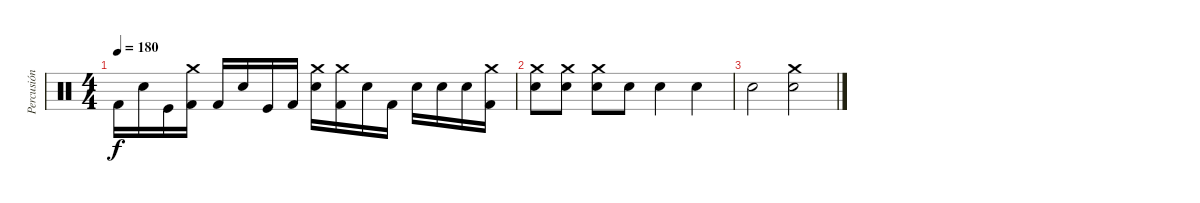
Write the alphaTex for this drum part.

\track ("Percusión" "Percusión") {instrument percussion}
\staff {score}
\articulation defaults
\ts (4 4)
\tempo 180
\clef neutral
\ks c "Kick (hit) 2".16{dy f} "Snare (hit) 2".16 "Kick (hit)".16
("Kick (hit) 2" "Crash medium (hit)").16 "Kick (hit) 2".16 "Snare (hit) 2".16 "Kick (hit)".16 "Kick (hit) 2".16 ("Snare (hit) 2" "Crash medium (hit)").16 ("Kick (hit) 2" "Crash medium (hit)").16 "Snare (hit) 2".16 "Kick (hit) 2".16 "Snare (hit) 2".16 "Snare (hit) 2".16 "Snare (hit) 2".16 ("Kick (hit) 2" "Crash medium (hit)").16 |
("Snare (hit) 2" "Crash medium (hit)").8 ("Snare (hit) 2" "Crash medium (hit)").8 ("Snare (hit) 2" "Crash medium (hit)").8 "Snare (hit) 2".8 "Snare (hit) 2".4 "Snare (hit) 2".4 |
"Snare (hit) 2".2 ("Snare (hit) 2" "Crash medium (hit)").2
